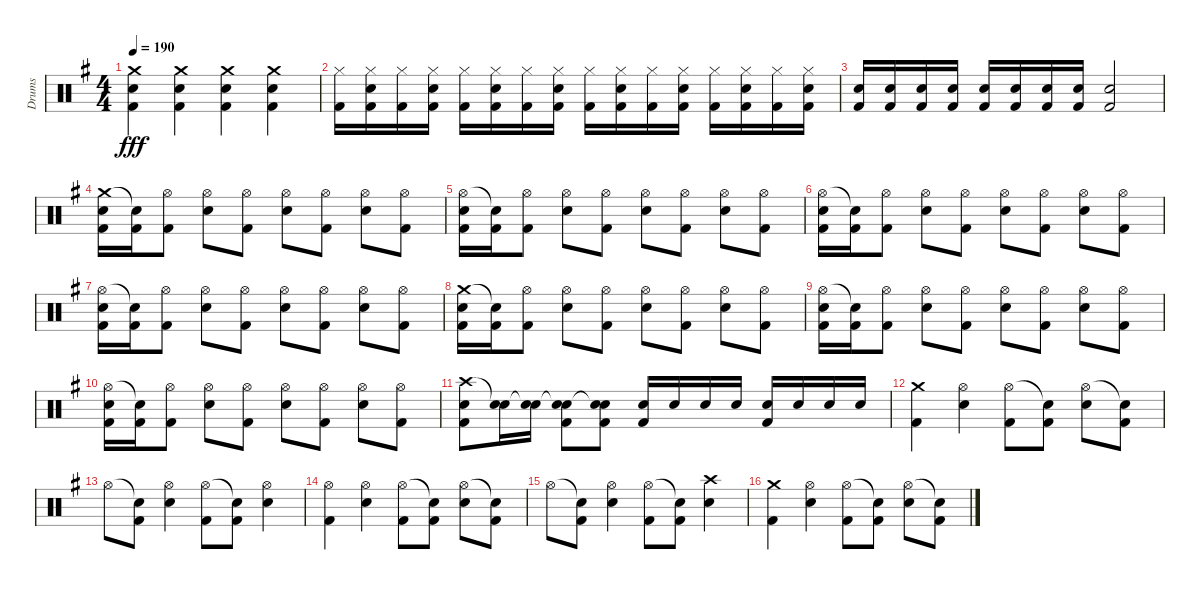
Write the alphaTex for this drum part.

\track ("Drums" "Drums") {instrument percussion}
\staff {score}
\articulation defaults
\ts (4 4)
\tempo 190
\clef neutral
\ks eminor
("Crash medium (hit)" "Electric Snare (hit)" "Kick (hit) 2").4{dy fff volume 16} ("Crash medium (hit)" "Electric Snare (hit)" "Kick (hit) 2").4 ("Crash medium (hit)" "Electric Snare (hit)" "Kick (hit) 2").4 ("Crash medium (hit)" "Electric Snare (hit)" "Kick (hit) 2").4 |
("Hi-Hat (closed)" "Kick (hit) 2").16 ("Hi-Hat (closed)" "Electric Snare (hit)" "Kick (hit) 2").16 ("Hi-Hat (closed)" "Kick (hit) 2").16 ("Hi-Hat (closed)" "Electric Snare (hit)" "Kick (hit) 2").16 ("Hi-Hat (closed)" "Kick (hit) 2").16 ("Hi-Hat (closed)" "Electric Snare (hit)" "Kick (hit) 2").16 ("Hi-Hat (closed)" "Kick (hit) 2").16 ("Hi-Hat (closed)" "Electric Snare (hit)" "Kick (hit) 2").16 ("Hi-Hat (closed)" "Kick (hit) 2").16 ("Hi-Hat (closed)" "Electric Snare (hit)" "Kick (hit) 2").16 ("Hi-Hat (closed)" "Kick (hit) 2").16 ("Hi-Hat (closed)" "Electric Snare (hit)" "Kick (hit) 2").16 ("Hi-Hat (closed)" "Kick (hit) 2").16 ("Hi-Hat (closed)" "Electric Snare (hit)" "Kick (hit) 2").16 ("Hi-Hat (closed)" "Kick (hit) 2").16 ("Hi-Hat (closed)" "Electric Snare (hit)" "Kick (hit) 2").16 |
("Electric Snare (hit)" "Kick (hit) 2").16 ("Electric Snare (hit)" "Kick (hit) 2").16 ("Electric Snare (hit)" "Kick (hit) 2").16 ("Electric Snare (hit)" "Kick (hit) 2").16 ("Electric Snare (hit)" "Kick (hit) 2").16 ("Electric Snare (hit)" "Kick (hit) 2").16 ("Electric Snare (hit)" "Kick (hit) 2").16 ("Electric Snare (hit)" "Kick (hit) 2").16 ("Electric Snare (hit)" "Kick (hit) 2").2 |
("Crash medium (hit)" "Electric Snare (hit)" "Kick (hit) 2").16 ("Snare (hit)"{t} "Kick (hit) 2").16 ("Hi-Hat (open)" "Kick (hit) 2").8 ("Hi-Hat (open)" "Electric Snare (hit)").8 ("Hi-Hat (open)" "Kick (hit) 2").8 ("Hi-Hat (open)" "Electric Snare (hit)").8 ("Hi-Hat (open)" "Kick (hit) 2").8 ("Hi-Hat (open)" "Electric Snare (hit)").8 ("Hi-Hat (open)" "Kick (hit) 2").8 |
("Hi-Hat (open)" "Electric Snare (hit)" "Kick (hit) 2").16 ("Snare (hit)"{t} "Kick (hit) 2").16 ("Hi-Hat (open)" "Kick (hit) 2").8 ("Hi-Hat (open)" "Electric Snare (hit)").8 ("Hi-Hat (open)" "Kick (hit) 2").8 ("Hi-Hat (open)" "Electric Snare (hit)").8 ("Hi-Hat (open)" "Kick (hit) 2").8 ("Hi-Hat (open)" "Electric Snare (hit)").8 ("Hi-Hat (open)" "Kick (hit) 2").8 |
("Hi-Hat (open)" "Electric Snare (hit)" "Kick (hit) 2").16 ("Snare (hit)"{t} "Kick (hit) 2").16 ("Hi-Hat (open)" "Kick (hit) 2").8 ("Hi-Hat (open)" "Electric Snare (hit)").8 ("Hi-Hat (open)" "Kick (hit) 2").8 ("Hi-Hat (open)" "Electric Snare (hit)").8 ("Hi-Hat (open)" "Kick (hit) 2").8 ("Hi-Hat (open)" "Electric Snare (hit)").8 ("Hi-Hat (open)" "Kick (hit) 2").8 |
("Hi-Hat (open)" "Electric Snare (hit)" "Kick (hit) 2").16 ("Snare (hit)"{t} "Kick (hit) 2").16 ("Hi-Hat (open)" "Kick (hit) 2").8 ("Hi-Hat (open)" "Electric Snare (hit)").8 ("Hi-Hat (open)" "Kick (hit) 2").8 ("Hi-Hat (open)" "Electric Snare (hit)").8 ("Hi-Hat (open)" "Kick (hit) 2").8 ("Hi-Hat (open)" "Electric Snare (hit)").8 ("Hi-Hat (open)" "Kick (hit) 2").8 |
("Crash medium (hit)" "Electric Snare (hit)" "Kick (hit) 2").16 ("Snare (hit)"{t} "Kick (hit) 2").16 ("Hi-Hat (open)" "Kick (hit) 2").8 ("Hi-Hat (open)" "Electric Snare (hit)").8 ("Hi-Hat (open)" "Kick (hit) 2").8 ("Hi-Hat (open)" "Electric Snare (hit)").8 ("Hi-Hat (open)" "Kick (hit) 2").8 ("Hi-Hat (open)" "Electric Snare (hit)").8 ("Hi-Hat (open)" "Kick (hit) 2").8 |
("Hi-Hat (open)" "Electric Snare (hit)" "Kick (hit) 2").16 ("Snare (hit)"{t} "Kick (hit) 2").16 ("Hi-Hat (open)" "Kick (hit) 2").8 ("Hi-Hat (open)" "Electric Snare (hit)").8 ("Hi-Hat (open)" "Kick (hit) 2").8 ("Hi-Hat (open)" "Electric Snare (hit)").8 ("Hi-Hat (open)" "Kick (hit) 2").8 ("Hi-Hat (open)" "Electric Snare (hit)").8 ("Hi-Hat (open)" "Kick (hit) 2").8 |
("Hi-Hat (open)" "Electric Snare (hit)" "Kick (hit) 2").16 ("Snare (hit)"{t} "Kick (hit) 2").16 ("Hi-Hat (open)" "Kick (hit) 2").8 ("Hi-Hat (open)" "Electric Snare (hit)").8 ("Hi-Hat (open)" "Kick (hit) 2").8 ("Hi-Hat (open)" "Electric Snare (hit)").8 ("Hi-Hat (open)" "Kick (hit) 2").8 ("Hi-Hat (open)" "Electric Snare (hit)").8 ("Hi-Hat (open)" "Kick (hit) 2").8 |
("Crash high (hit)" "Electric Snare (hit)" "Kick (hit) 2").8 ("Snare (hit)"{t} "Electric Snare (hit)").16 ("Snare (hit)"{t} "Electric Snare (hit)").16 ("Snare (hit)"{t} "Electric Snare (hit)" "Kick (hit) 2").8 ("Snare (hit)"{t} "Electric Snare (hit)" "Kick (hit) 2").8 ("Electric Snare (hit)" "Kick (hit) 2").16 "Electric Snare (hit)".16 "Electric Snare (hit)".16 "Electric Snare (hit)".16 ("Electric Snare (hit)" "Kick (hit) 2").16 "Electric Snare (hit)".16 "Electric Snare (hit)".16 "Electric Snare (hit)".16 |
("Crash medium (hit)" "Kick (hit) 2").4 ("Hi-Hat (open)" "Electric Snare (hit)").4 ("Hi-Hat (open)" "Kick (hit) 2").8 ("Snare (hit)"{t} "Kick (hit) 2").8 ("Hi-Hat (open)" "Electric Snare (hit)").8 ("Snare (hit)"{t} "Kick (hit) 2").8 |
"Hi-Hat (open)".8 ("Snare (hit)"{t} "Kick (hit) 2").8 ("Hi-Hat (open)" "Electric Snare (hit)").4 ("Hi-Hat (open)" "Kick (hit) 2").8 ("Snare (hit)"{t} "Kick (hit) 2").8 ("Hi-Hat (open)" "Electric Snare (hit)").4 |
("Hi-Hat (open)" "Kick (hit) 2").4 ("Hi-Hat (open)" "Electric Snare (hit)").4 ("Hi-Hat (open)" "Kick (hit) 2").8 ("Snare (hit)"{t} "Kick (hit) 2").8 ("Hi-Hat (open)" "Electric Snare (hit)").8 ("Snare (hit)"{t} "Kick (hit) 2").8 |
"Hi-Hat (open)".8 ("Snare (hit)"{t} "Kick (hit) 2").8 ("Hi-Hat (open)" "Electric Snare (hit)").4 ("Hi-Hat (open)" "Kick (hit) 2").8 ("Snare (hit)"{t} "Kick (hit) 2").8 ("Crash high (hit)" "Electric Snare (hit)").4 |
("Crash medium (hit)" "Kick (hit) 2").4 ("Hi-Hat (open)" "Electric Snare (hit)").4 ("Hi-Hat (open)" "Kick (hit) 2").8 ("Snare (hit)"{t} "Kick (hit) 2").8 ("Hi-Hat (open)" "Electric Snare (hit)").8 ("Snare (hit)"{t} "Kick (hit) 2").8
